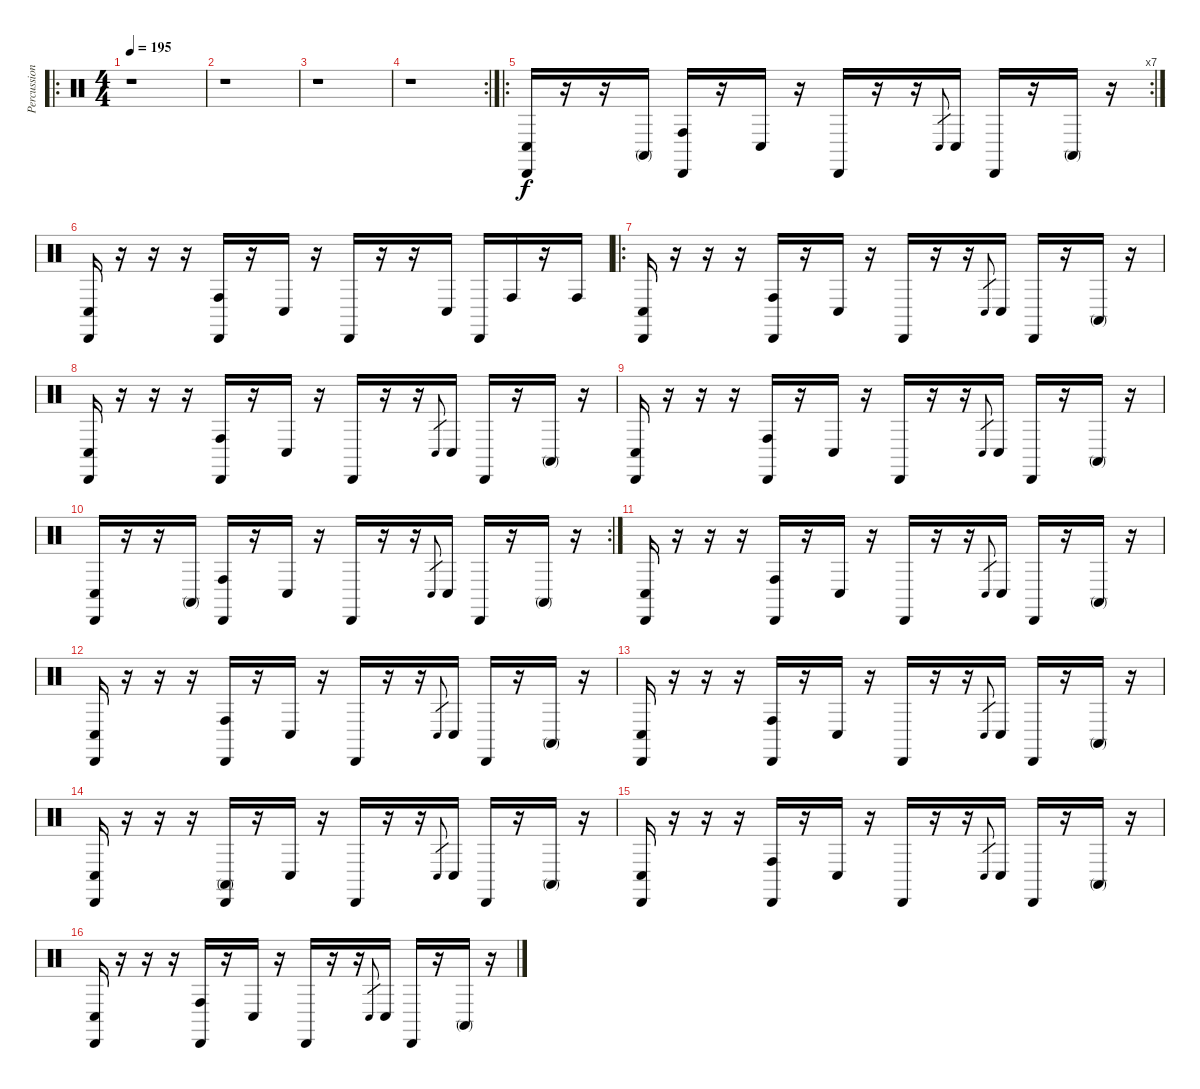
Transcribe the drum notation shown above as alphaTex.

\track ("Percussion" "Percussion") {instrument percussion}
\staff {score}
\articulation defaults
\ro
\ts (4 4)
\tempo 195
\clef neutral
\ks c
r.1{dy f} |
r.1 |
r.1 |
\rc 2
r.1 |
\ro
\rc 7
("Conga low (hit)" "Cabasa (hit)").16 r.16 r.16 "Conga high (mute)".16 ("Conga high (hit)" "Cabasa (hit)").16 r.16 "Conga low (hit)".16 r.16 "Cabasa (hit)".16 r.16 r.16 "Conga low (hit)".8{gr} "Conga low (hit)".16 "Cabasa (hit)".16 r.16 "Conga high (mute)".16 r.16 |
("Conga low (hit)" "Cabasa (hit)").16 r.16 r.16 r.16 ("Conga high (hit)" "Cabasa (hit)").16 r.16 "Conga low (hit)".16 r.16 "Cabasa (hit)".16 r.16 r.16 "Conga low (hit)".16 "Cabasa (hit)".16 "Conga high (hit)".16 r.16 "Conga high (hit)".16 |
\ro
("Conga low (hit)" "Cabasa (hit)").16 r.16 r.16 r.16 ("Conga high (hit)" "Cabasa (hit)").16 r.16 "Conga low (hit)".16 r.16 "Cabasa (hit)".16 r.16 r.16 "Conga low (hit)".8{gr} "Conga low (hit)".16 "Cabasa (hit)".16 r.16 "Conga high (mute)".16 r.16 |
("Conga low (hit)" "Cabasa (hit)").16 r.16 r.16 r.16 ("Conga high (hit)" "Cabasa (hit)").16 r.16 "Conga low (hit)".16 r.16 "Cabasa (hit)".16 r.16 r.16 "Conga low (hit)".8{gr} "Conga low (hit)".16 "Cabasa (hit)".16 r.16 "Conga high (mute)".16 r.16 |
("Conga low (hit)" "Cabasa (hit)").16 r.16 r.16 r.16 ("Conga high (hit)" "Cabasa (hit)").16 r.16 "Conga low (hit)".16 r.16 "Cabasa (hit)".16 r.16 r.16 "Conga low (hit)".8{gr} "Conga low (hit)".16 "Cabasa (hit)".16 r.16 "Conga high (mute)".16 r.16 |
\rc 2
("Conga low (hit)" "Cabasa (hit)").16 r.16 r.16 "Conga high (mute)".16 ("Conga high (hit)" "Cabasa (hit)").16 r.16 "Conga low (hit)".16 r.16 "Cabasa (hit)".16 r.16 r.16 "Conga low (hit)".8{gr} "Conga low (hit)".16 "Cabasa (hit)".16 r.16 "Conga high (mute)".16 r.16 |
("Conga low (hit)" "Cabasa (hit)").16 r.16 r.16 r.16 ("Conga high (hit)" "Cabasa (hit)").16 r.16 "Conga low (hit)".16 r.16 "Cabasa (hit)".16 r.16 r.16 "Conga low (hit)".8{gr} "Conga low (hit)".16 "Cabasa (hit)".16 r.16 "Conga high (mute)".16 r.16 |
("Conga low (hit)" "Cabasa (hit)").16 r.16 r.16 r.16 ("Conga high (hit)" "Cabasa (hit)").16 r.16 "Conga low (hit)".16 r.16 "Cabasa (hit)".16 r.16 r.16 "Conga low (hit)".8{gr} "Conga low (hit)".16 "Cabasa (hit)".16 r.16 "Conga high (mute)".16 r.16 |
("Conga low (hit)" "Cabasa (hit)").16 r.16 r.16 r.16 ("Conga high (hit)" "Cabasa (hit)").16 r.16 "Conga low (hit)".16 r.16 "Cabasa (hit)".16 r.16 r.16 "Conga low (hit)".8{gr} "Conga low (hit)".16 "Cabasa (hit)".16 r.16 "Conga high (mute)".16 r.16 |
("Conga low (hit)" "Cabasa (hit)").16 r.16 r.16 r.16 ("Conga high (mute)" "Cabasa (hit)").16 r.16 "Conga low (hit)".16 r.16 "Cabasa (hit)".16 r.16 r.16 "Conga low (hit)".8{gr} "Conga low (hit)".16 "Cabasa (hit)".16 r.16 "Conga high (mute)".16 r.16 |
("Conga low (hit)" "Cabasa (hit)").16 r.16 r.16 r.16 ("Conga high (hit)" "Cabasa (hit)").16 r.16 "Conga low (hit)".16 r.16 "Cabasa (hit)".16 r.16 r.16 "Conga low (hit)".8{gr} "Conga low (hit)".16 "Cabasa (hit)".16 r.16 "Conga high (mute)".16 r.16 |
("Conga low (hit)" "Cabasa (hit)").16 r.16 r.16 r.16 ("Conga high (hit)" "Cabasa (hit)").16 r.16 "Conga low (hit)".16 r.16 "Cabasa (hit)".16 r.16 r.16 "Conga low (hit)".8{gr} "Conga low (hit)".16 "Cabasa (hit)".16 r.16 "Conga high (mute)".16 r.16
